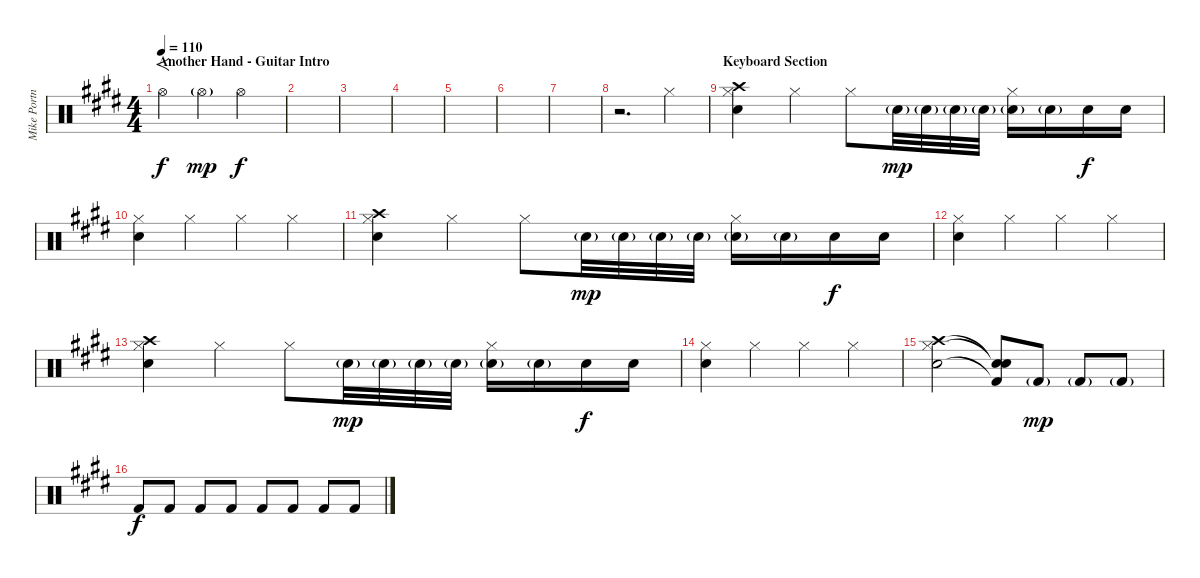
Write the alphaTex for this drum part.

\track ("Mike Portnoy Drums/Pecussion" "Mike Portn") {instrument percussion}
\staff {score}
\articulation defaults
\ts (4 4)
\section ("" "Another Hand - Guitar Intro")
\tempo 110
\clef neutral
\ks e "Hi-Hat (open)".4{f dy f} "Hi-Hat (open)"{g}.4{dy mp} "Hi-Hat (open)".2{dy f}
|
|
|
|
|
|
|
r.2{d} "Hi-Hat (closed)".4 |
\section ("" "Keyboard Section")
("Hi-Hat (closed)" "Crash high (hit)" "Snare (hit) 2").4 "Hi-Hat (closed)".4 "Hi-Hat (closed)".8 "Snare (hit) 2"{g}.32{dy mp} "Snare (hit) 2"{g}.32 "Snare (hit) 2"{g}.32 "Snare (hit) 2"{g}.32 ("Hi-Hat (closed)" "Snare (hit) 2"{g}).16 "Snare (hit) 2"{g}.16 "Snare (hit) 2".16{dy f} "Snare (hit) 2".16 |
("Hi-Hat (closed)" "Snare (hit) 2").4 "Hi-Hat (closed)".4 "Hi-Hat (closed)".4 "Hi-Hat (closed)".4 |
("Hi-Hat (closed)" "Crash high (hit)" "Snare (hit) 2").4 "Hi-Hat (closed)".4 "Hi-Hat (closed)".8 "Snare (hit) 2"{g}.32{dy mp} "Snare (hit) 2"{g}.32 "Snare (hit) 2"{g}.32 "Snare (hit) 2"{g}.32 ("Hi-Hat (closed)" "Snare (hit) 2"{g}).16 "Snare (hit) 2"{g}.16 "Snare (hit) 2".16{dy f} "Snare (hit) 2".16 |
("Hi-Hat (closed)" "Snare (hit) 2").4 "Hi-Hat (closed)".4 "Hi-Hat (closed)".4 "Hi-Hat (closed)".4 |
("Hi-Hat (closed)" "Crash high (hit)" "Snare (hit) 2").4 "Hi-Hat (closed)".4 "Hi-Hat (closed)".8 "Snare (hit) 2"{g}.32{dy mp} "Snare (hit) 2"{g}.32 "Snare (hit) 2"{g}.32 "Snare (hit) 2"{g}.32 ("Hi-Hat (closed)" "Snare (hit) 2"{g}).16 "Snare (hit) 2"{g}.16 "Snare (hit) 2".16{dy f} "Snare (hit) 2".16 |
("Hi-Hat (closed)" "Snare (hit) 2").4 "Hi-Hat (closed)".4 "Hi-Hat (closed)".4 "Hi-Hat (closed)".4 |
("Hi-Hat (closed)" "Crash high (hit)" "Snare (hit) 2").2 ("Snare (hit)"{t} "Snare (hit)"{t} "Kick (hit) 2"{t}).8 "Kick (hit) 2"{g}.8{dy mp} "Kick (hit) 2"{g}.8 "Kick (hit) 2"{g}.8 |
"Kick (hit) 2".8{dy f} "Kick (hit) 2".8 "Kick (hit) 2".8 "Kick (hit) 2".8 "Kick (hit) 2".8 "Kick (hit) 2".8 "Kick (hit) 2".8 "Kick (hit) 2".8
